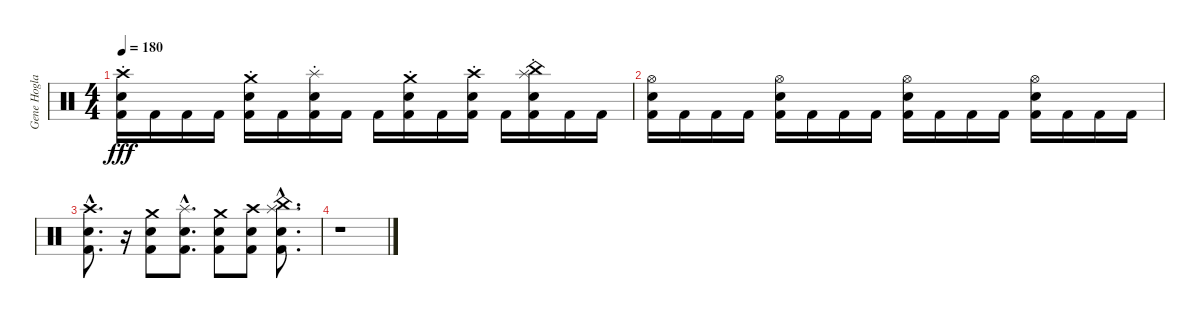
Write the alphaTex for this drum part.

\track ("Gene Hoglan" "Gene Hogla") {instrument percussion}
\staff {score}
\articulation defaults
\ts (4 4)
\tempo 180
\clef neutral
\ks c
("Crash high (hit)"{st} "Snare (hit) 2" "Kick (hit) 2").16{dy fff} "Kick (hit) 2".16 "Kick (hit) 2".16 "Kick (hit) 2".16 ("Crash medium (hit)"{st} "Snare (hit) 2" "Kick (hit) 2").16 "Kick (hit) 2".16 ("Splash (hit)"{st} "Snare (hit) 2" "Kick (hit) 2").16 "Kick (hit) 2".16 "Kick (hit) 2".16 ("Crash medium (hit)"{st} "Snare (hit) 2" "Kick (hit) 2").16 "Kick (hit) 2".16 ("Crash high (hit)"{st} "Snare (hit) 2" "Kick (hit) 2").16 "Kick (hit) 2".16 ("China (hit)"{st} "Splash (hit)"{st} "Snare (hit) 2" "Kick (hit) 2").16 "Kick (hit) 2".16 "Kick (hit) 2".16 |
("Hi-Hat (open)" "Snare (hit) 2" "Kick (hit) 2").16 "Kick (hit) 2".16 "Kick (hit) 2".16 "Kick (hit) 2".16 ("Hi-Hat (open)" "Snare (hit) 2" "Kick (hit) 2").16 "Kick (hit) 2".16 "Kick (hit) 2".16 "Kick (hit) 2".16 ("Hi-Hat (open)" "Snare (hit) 2" "Kick (hit) 2").16 "Kick (hit) 2".16 "Kick (hit) 2".16 "Kick (hit) 2".16 ("Hi-Hat (open)" "Snare (hit) 2" "Kick (hit) 2").16 "Kick (hit) 2".16 "Kick (hit) 2".16 "Kick (hit) 2".16 |
("Crash high (hit)"{hac} "Snare (hit) 2"{hac} "Kick (hit) 2"{hac}).8{d} r.16 ("Crash medium (hit)" "Snare (hit) 2" "Kick (hit) 2").8 ("Splash (hit)"{hac} "Snare (hit) 2"{hac} "Kick (hit) 2"{hac}).8{d} ("Crash medium (hit)" "Snare (hit) 2" "Kick (hit) 2").8 ("Crash high (hit)" "Snare (hit) 2" "Kick (hit) 2").8 ("China (hit)"{hac} "Splash (hit)"{hac} "Snare (hit) 2"{hac} "Kick (hit) 2"{hac}).8{d} |
r.1
